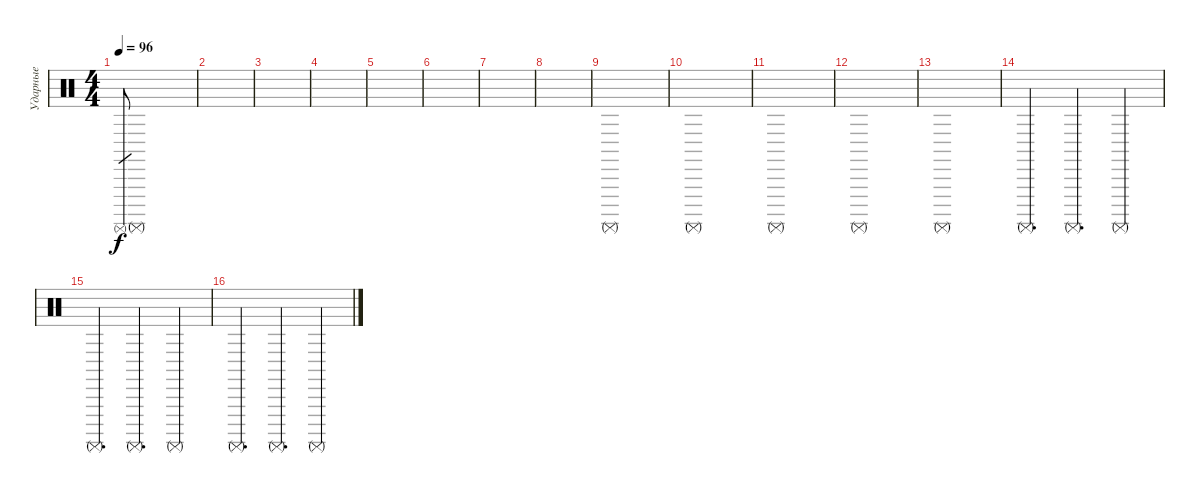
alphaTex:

\track ("Ударные" "Ударные") {solo instrument percussion}
\staff {score}
\articulation defaults
\ts (4 4)
\tempo 96
\clef neutral
\ks c "Surdo (mute)".8{gr dy f} "Surdo (mute)".1
|
|
|
|
|
|
|
|
"Surdo (mute)".1 |
"Surdo (mute)".1 |
"Surdo (mute)".1 |
"Surdo (mute)".1 |
"Surdo (mute)".1 |
"Surdo (mute)".4{d} "Surdo (mute)".4{d} "Surdo (mute)".4 |
"Surdo (mute)".4{d} "Surdo (mute)".4{d} "Surdo (mute)".4 |
"Surdo (mute)".4{d} "Surdo (mute)".4{d} "Surdo (mute)".4
